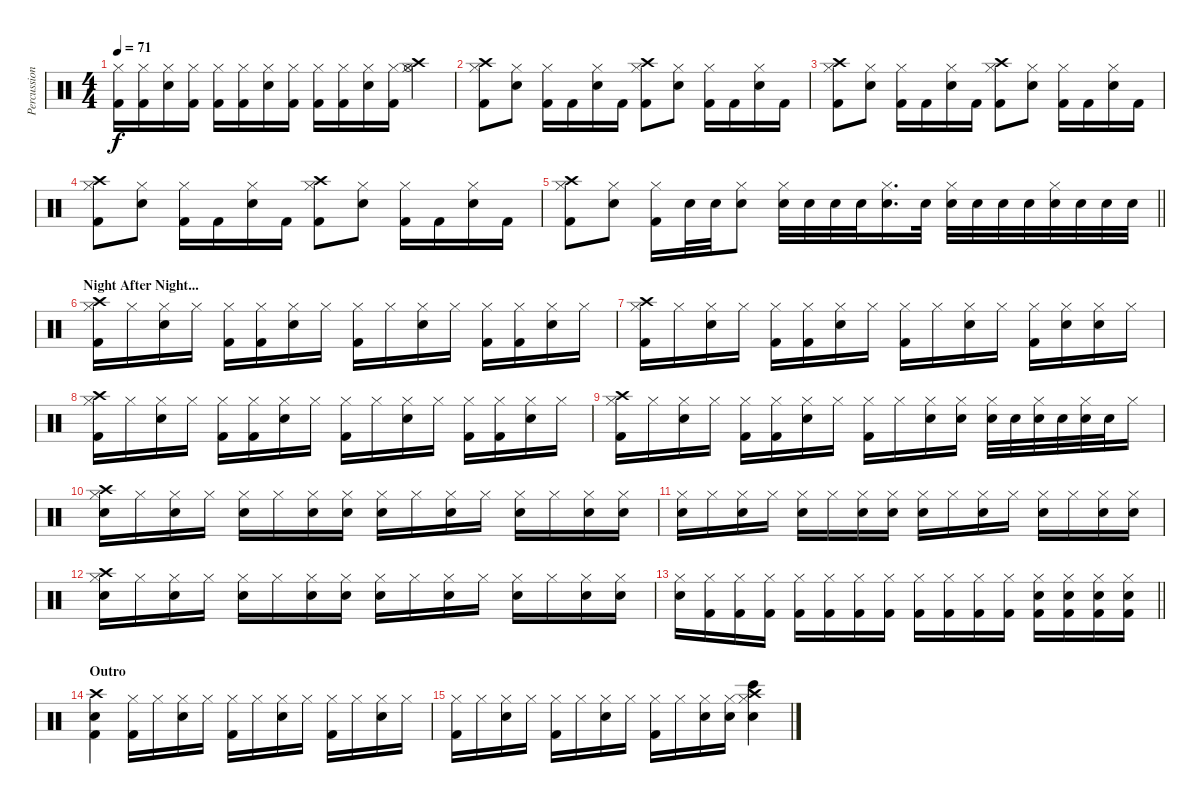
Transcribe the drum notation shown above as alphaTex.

\track ("Percussion" "Percussion") {instrument percussion}
\staff {score}
\articulation defaults
\ts (4 4)
\tempo 71
\clef neutral
\ks c
("Hi-Hat (closed)" "Kick (hit) 2").16{dy f} ("Hi-Hat (closed)" "Kick (hit) 2").16 ("Hi-Hat (closed)" "Snare (hit) 2").16 ("Hi-Hat (closed)" "Kick (hit) 2").16 ("Hi-Hat (closed)" "Kick (hit) 2").16 ("Hi-Hat (closed)" "Kick (hit) 2").16 ("Hi-Hat (closed)" "Snare (hit) 2").16 ("Hi-Hat (closed)" "Kick (hit) 2").16 ("Hi-Hat (closed)" "Kick (hit) 2").16 ("Hi-Hat (closed)" "Kick (hit) 2").16 ("Hi-Hat (closed)" "Snare (hit) 2").16 ("Hi-Hat (closed)" "Kick (hit) 2").16 ("Hi-Hat (closed)" "Crash high (hit)" "Hi-Hat (open)").4 |
("Crash high (hit)" "Kick (hit) 2" "Hi-Hat (closed)").8 ("Snare (hit) 2" "Hi-Hat (closed)").8 ("Kick (hit) 2" "Hi-Hat (closed)").16 "Kick (hit) 2".16 ("Snare (hit) 2" "Hi-Hat (closed)").16 "Kick (hit) 2".16 ("Crash high (hit)" "Kick (hit) 2" "Hi-Hat (closed)").8 ("Snare (hit) 2" "Hi-Hat (closed)").8 ("Kick (hit) 2" "Hi-Hat (closed)").16 "Kick (hit) 2".16 ("Snare (hit) 2" "Hi-Hat (closed)").16 "Kick (hit) 2".16 |
("Crash high (hit)" "Kick (hit) 2" "Hi-Hat (closed)").8 ("Snare (hit) 2" "Hi-Hat (closed)").8 ("Kick (hit) 2" "Hi-Hat (closed)").16 "Kick (hit) 2".16 ("Snare (hit) 2" "Hi-Hat (closed)").16 "Kick (hit) 2".16 ("Crash high (hit)" "Kick (hit) 2" "Hi-Hat (closed)").8 ("Snare (hit) 2" "Hi-Hat (closed)").8 ("Kick (hit) 2" "Hi-Hat (closed)").16 "Kick (hit) 2".16 ("Snare (hit) 2" "Hi-Hat (closed)").16 "Kick (hit) 2".16 |
("Crash high (hit)" "Kick (hit) 2" "Hi-Hat (closed)").8 ("Snare (hit) 2" "Hi-Hat (closed)").8 ("Kick (hit) 2" "Hi-Hat (closed)").16 "Kick (hit) 2".16 ("Snare (hit) 2" "Hi-Hat (closed)").16 "Kick (hit) 2".16 ("Crash high (hit)" "Kick (hit) 2" "Hi-Hat (closed)").8 ("Snare (hit) 2" "Hi-Hat (closed)").8 ("Kick (hit) 2" "Hi-Hat (closed)").16 "Kick (hit) 2".16 ("Snare (hit) 2" "Hi-Hat (closed)").16 "Kick (hit) 2".16 |
\barLineRight lightlight
("Crash high (hit)" "Kick (hit) 2" "Hi-Hat (closed)").8 ("Snare (hit) 2" "Hi-Hat (closed)").8 ("Kick (hit) 2" "Hi-Hat (closed)").16 "Snare (hit) 2".32 "Snare (hit) 2".32 ("Snare (hit) 2" "Hi-Hat (closed)").8 ("Snare (hit) 2" "Hi-Hat (closed)").32 "Snare (hit) 2".32 "Snare (hit) 2".32 "Snare (hit) 2".32 ("Snare (hit) 2" "Hi-Hat (closed)").16{d} "Snare (hit) 2".32 ("Snare (hit) 2" "Hi-Hat (closed)").32 "Snare (hit) 2".32 "Snare (hit) 2".32 "Snare (hit) 2".32 ("Snare (hit) 2" "Hi-Hat (closed)").32 "Snare (hit) 2".32 "Snare (hit) 2".32 "Snare (hit) 2".32 |
\section ("" "Night After Night...")
("Crash high (hit)" "Hi-Hat (closed)" "Kick (hit) 2").16 "Hi-Hat (closed)".16 ("Hi-Hat (closed)" "Snare (hit) 2").16 "Hi-Hat (closed)".16 ("Hi-Hat (closed)" "Kick (hit) 2").16 ("Hi-Hat (closed)" "Kick (hit) 2").16 ("Hi-Hat (closed)" "Snare (hit) 2").16 "Hi-Hat (closed)".16 ("Hi-Hat (closed)" "Kick (hit) 2").16 "Hi-Hat (closed)".16 ("Hi-Hat (closed)" "Snare (hit) 2").16 "Hi-Hat (closed)".16 ("Hi-Hat (closed)" "Kick (hit) 2").16 ("Hi-Hat (closed)" "Kick (hit) 2").16 ("Hi-Hat (closed)" "Snare (hit) 2").16 "Hi-Hat (closed)".16 |
("Crash high (hit)" "Hi-Hat (closed)" "Kick (hit) 2").16 "Hi-Hat (closed)".16 ("Hi-Hat (closed)" "Snare (hit) 2").16 "Hi-Hat (closed)".16 ("Hi-Hat (closed)" "Kick (hit) 2").16 ("Hi-Hat (closed)" "Kick (hit) 2").16 ("Hi-Hat (closed)" "Snare (hit) 2").16 "Hi-Hat (closed)".16 ("Hi-Hat (closed)" "Kick (hit) 2").16 "Hi-Hat (closed)".16 ("Hi-Hat (closed)" "Snare (hit) 2").16 "Hi-Hat (closed)".16 ("Hi-Hat (closed)" "Kick (hit) 2").16 ("Hi-Hat (closed)" "Snare (hit) 2").16 ("Hi-Hat (closed)" "Snare (hit) 2").16 "Hi-Hat (closed)".16 |
("Crash high (hit)" "Hi-Hat (closed)" "Kick (hit) 2").16 "Hi-Hat (closed)".16 ("Hi-Hat (closed)" "Snare (hit) 2").16 "Hi-Hat (closed)".16 ("Hi-Hat (closed)" "Kick (hit) 2").16 ("Hi-Hat (closed)" "Kick (hit) 2").16 ("Hi-Hat (closed)" "Snare (hit) 2").16 "Hi-Hat (closed)".16 ("Hi-Hat (closed)" "Kick (hit) 2").16 "Hi-Hat (closed)".16 ("Hi-Hat (closed)" "Snare (hit) 2").16 "Hi-Hat (closed)".16 ("Hi-Hat (closed)" "Kick (hit) 2").16 ("Hi-Hat (closed)" "Kick (hit) 2").16 ("Hi-Hat (closed)" "Snare (hit) 2").16 "Hi-Hat (closed)".16 |
("Crash high (hit)" "Hi-Hat (closed)" "Kick (hit) 2").16 "Hi-Hat (closed)".16 ("Hi-Hat (closed)" "Snare (hit) 2").16 "Hi-Hat (closed)".16 ("Hi-Hat (closed)" "Kick (hit) 2").16 ("Hi-Hat (closed)" "Kick (hit) 2").16 ("Hi-Hat (closed)" "Snare (hit) 2").16 "Hi-Hat (closed)".16 ("Hi-Hat (closed)" "Kick (hit) 2").16 "Hi-Hat (closed)".16 ("Hi-Hat (closed)" "Snare (hit) 2").16 ("Hi-Hat (closed)" "Snare (hit) 2").16 ("Hi-Hat (closed)" "Snare (hit) 2").32 "Snare (hit) 2".32 ("Hi-Hat (closed)" "Snare (hit) 2").32 "Snare (hit) 2".32 ("Hi-Hat (closed)" "Snare (hit) 2").32 "Snare (hit) 2".32 "Hi-Hat (closed)".16 |
("Crash high (hit)" "Hi-Hat (closed)" "Snare (hit) 2").16 "Hi-Hat (closed)".16 ("Hi-Hat (closed)" "Snare (hit) 2").16 "Hi-Hat (closed)".16 ("Hi-Hat (closed)" "Snare (hit) 2").16 "Hi-Hat (closed)".16 ("Hi-Hat (closed)" "Snare (hit) 2").16 ("Hi-Hat (closed)" "Snare (hit) 2").16 ("Hi-Hat (closed)" "Snare (hit) 2").16 "Hi-Hat (closed)".16 ("Hi-Hat (closed)" "Snare (hit) 2").16 "Hi-Hat (closed)".16 ("Hi-Hat (closed)" "Snare (hit) 2").16 "Hi-Hat (closed)".16 ("Hi-Hat (closed)" "Snare (hit) 2").16 ("Hi-Hat (closed)" "Snare (hit) 2").16 |
("Hi-Hat (closed)" "Snare (hit) 2").16 "Hi-Hat (closed)".16 ("Hi-Hat (closed)" "Snare (hit) 2").16 "Hi-Hat (closed)".16 ("Hi-Hat (closed)" "Snare (hit) 2").16 "Hi-Hat (closed)".16 ("Hi-Hat (closed)" "Snare (hit) 2").16 ("Hi-Hat (closed)" "Snare (hit) 2").16 ("Hi-Hat (closed)" "Snare (hit) 2").16 "Hi-Hat (closed)".16 ("Hi-Hat (closed)" "Snare (hit) 2").16 "Hi-Hat (closed)".16 ("Hi-Hat (closed)" "Snare (hit) 2").16 "Hi-Hat (closed)".16 ("Hi-Hat (closed)" "Snare (hit) 2").16 ("Hi-Hat (closed)" "Snare (hit) 2").16 |
("Crash high (hit)" "Hi-Hat (closed)" "Snare (hit) 2").16 "Hi-Hat (closed)".16 ("Hi-Hat (closed)" "Snare (hit) 2").16 "Hi-Hat (closed)".16 ("Hi-Hat (closed)" "Snare (hit) 2").16 "Hi-Hat (closed)".16 ("Hi-Hat (closed)" "Snare (hit) 2").16 ("Hi-Hat (closed)" "Snare (hit) 2").16 ("Hi-Hat (closed)" "Snare (hit) 2").16 "Hi-Hat (closed)".16 ("Hi-Hat (closed)" "Snare (hit) 2").16 "Hi-Hat (closed)".16 ("Hi-Hat (closed)" "Snare (hit) 2").16 "Hi-Hat (closed)".16 ("Hi-Hat (closed)" "Snare (hit) 2").16 ("Hi-Hat (closed)" "Snare (hit) 2").16 |
\barLineRight lightlight
("Hi-Hat (closed)" "Snare (hit) 2").16 ("Hi-Hat (closed)" "Kick (hit) 2").16 ("Hi-Hat (closed)" "Kick (hit) 2").16 ("Hi-Hat (closed)" "Kick (hit) 2").16 ("Hi-Hat (closed)" "Kick (hit) 2").16 ("Hi-Hat (closed)" "Kick (hit) 2").16 ("Hi-Hat (closed)" "Kick (hit) 2").16 ("Hi-Hat (closed)" "Kick (hit) 2").16 ("Hi-Hat (closed)" "Kick (hit) 2").16 ("Hi-Hat (closed)" "Kick (hit) 2").16 ("Hi-Hat (closed)" "Kick (hit) 2").16 ("Hi-Hat (closed)" "Kick (hit) 2").16 ("Hi-Hat (closed)" "Kick (hit) 2" "Snare (hit) 2").16 ("Hi-Hat (closed)" "Kick (hit) 2" "Snare (hit) 2").16 ("Hi-Hat (closed)" "Kick (hit) 2" "Snare (hit) 2").16 ("Hi-Hat (closed)" "Kick (hit) 2" "Snare (hit) 2").16 |
\section ("" "Outro")
("Crash high (hit)" "Snare (hit) 2" "Kick (hit) 2").4 ("Hi-Hat (closed)" "Kick (hit) 2").16 "Hi-Hat (closed)".16 ("Hi-Hat (closed)" "Snare (hit) 2").16 "Hi-Hat (closed)".16 ("Hi-Hat (closed)" "Kick (hit) 2").16 "Hi-Hat (closed)".16 ("Hi-Hat (closed)" "Snare (hit) 2").16 "Hi-Hat (closed)".16 ("Hi-Hat (closed)" "Kick (hit) 2").16 "Hi-Hat (closed)".16 ("Hi-Hat (closed)" "Snare (hit) 2").16 "Hi-Hat (closed)".16 |
("Hi-Hat (closed)" "Kick (hit) 2").16 "Hi-Hat (closed)".16 ("Hi-Hat (closed)" "Snare (hit) 2").16 "Hi-Hat (closed)".16 ("Hi-Hat (closed)" "Kick (hit) 2").16 "Hi-Hat (closed)".16 ("Hi-Hat (closed)" "Snare (hit) 2").16 "Hi-Hat (closed)".16 ("Hi-Hat (closed)" "Kick (hit) 2").16 "Hi-Hat (closed)".16 ("Hi-Hat (closed)" "Snare (hit) 2").16 ("Hi-Hat (closed)" "Snare (hit) 2").16 ("Crash high (hit)" "Hi-Hat (closed)" "Snare (hit) 2" "Bongo High (hit)").4
